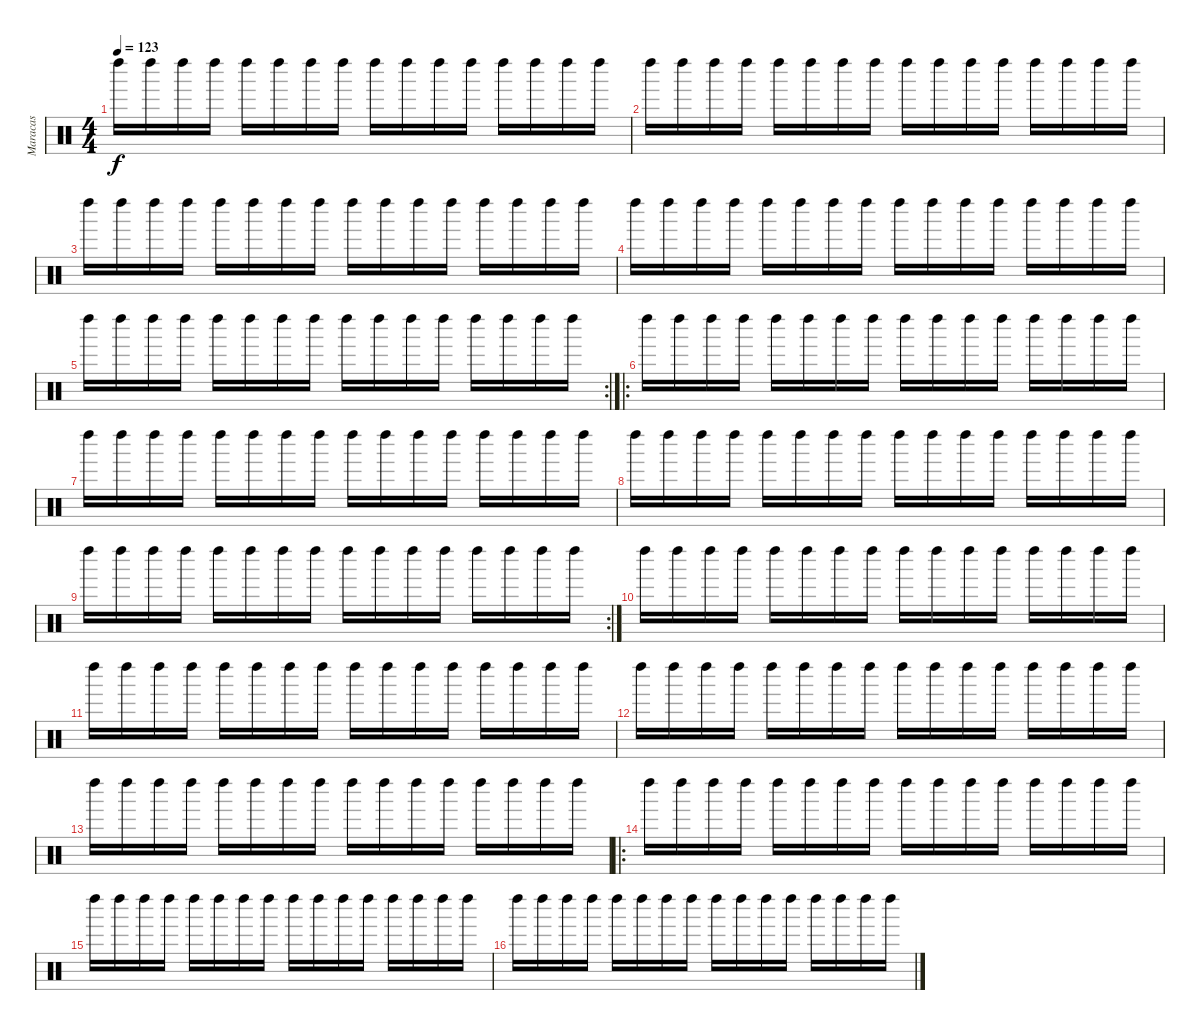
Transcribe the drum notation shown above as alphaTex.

\track ("Maracas" "Maracas") {instrument percussion}
\staff {score}
\articulation defaults
\ts (4 4)
\tempo 123
\clef neutral
\ks c "Left Maraca (hit)".16{dy f} "Left Maraca (hit)".16 "Left Maraca (hit)".16 "Left Maraca (hit)".16 "Left Maraca (hit)".16 "Left Maraca (hit)".16 "Left Maraca (hit)".16 "Left Maraca (hit)".16 "Left Maraca (hit)".16 "Left Maraca (hit)".16 "Left Maraca (hit)".16 "Left Maraca (hit)".16 "Left Maraca (hit)".16 "Left Maraca (hit)".16 "Left Maraca (hit)".16 "Left Maraca (hit)".16
|
"Left Maraca (hit)".16 "Left Maraca (hit)".16 "Left Maraca (hit)".16 "Left Maraca (hit)".16 "Left Maraca (hit)".16 "Left Maraca (hit)".16 "Left Maraca (hit)".16 "Left Maraca (hit)".16 "Left Maraca (hit)".16 "Left Maraca (hit)".16 "Left Maraca (hit)".16 "Left Maraca (hit)".16 "Left Maraca (hit)".16 "Left Maraca (hit)".16 "Left Maraca (hit)".16 "Left Maraca (hit)".16 |
"Left Maraca (hit)".16 "Left Maraca (hit)".16 "Left Maraca (hit)".16 "Left Maraca (hit)".16 "Left Maraca (hit)".16 "Left Maraca (hit)".16 "Left Maraca (hit)".16 "Left Maraca (hit)".16 "Left Maraca (hit)".16 "Left Maraca (hit)".16 "Left Maraca (hit)".16 "Left Maraca (hit)".16 "Left Maraca (hit)".16 "Left Maraca (hit)".16 "Left Maraca (hit)".16 "Left Maraca (hit)".16 |
"Left Maraca (hit)".16 "Left Maraca (hit)".16 "Left Maraca (hit)".16 "Left Maraca (hit)".16 "Left Maraca (hit)".16 "Left Maraca (hit)".16 "Left Maraca (hit)".16 "Left Maraca (hit)".16 "Left Maraca (hit)".16 "Left Maraca (hit)".16 "Left Maraca (hit)".16 "Left Maraca (hit)".16 "Left Maraca (hit)".16 "Left Maraca (hit)".16 "Left Maraca (hit)".16 "Left Maraca (hit)".16 |
\rc 2 "Left Maraca (hit)".16 "Left Maraca (hit)".16 "Left Maraca (hit)".16 "Left Maraca (hit)".16 "Left Maraca (hit)".16 "Left Maraca (hit)".16 "Left Maraca (hit)".16 "Left Maraca (hit)".16 "Left Maraca (hit)".16 "Left Maraca (hit)".16 "Left Maraca (hit)".16 "Left Maraca (hit)".16 "Left Maraca (hit)".16 "Left Maraca (hit)".16 "Left Maraca (hit)".16 "Left Maraca (hit)".16
|
\ro "Left Maraca (hit)".16 "Left Maraca (hit)".16 "Left Maraca (hit)".16 "Left Maraca (hit)".16 "Left Maraca (hit)".16 "Left Maraca (hit)".16 "Left Maraca (hit)".16 "Left Maraca (hit)".16 "Left Maraca (hit)".16 "Left Maraca (hit)".16 "Left Maraca (hit)".16 "Left Maraca (hit)".16 "Left Maraca (hit)".16 "Left Maraca (hit)".16 "Left Maraca (hit)".16 "Left Maraca (hit)".16
|
"Left Maraca (hit)".16 "Left Maraca (hit)".16 "Left Maraca (hit)".16 "Left Maraca (hit)".16 "Left Maraca (hit)".16 "Left Maraca (hit)".16 "Left Maraca (hit)".16 "Left Maraca (hit)".16 "Left Maraca (hit)".16 "Left Maraca (hit)".16 "Left Maraca (hit)".16 "Left Maraca (hit)".16 "Left Maraca (hit)".16 "Left Maraca (hit)".16 "Left Maraca (hit)".16 "Left Maraca (hit)".16 |
"Left Maraca (hit)".16 "Left Maraca (hit)".16 "Left Maraca (hit)".16 "Left Maraca (hit)".16 "Left Maraca (hit)".16 "Left Maraca (hit)".16 "Left Maraca (hit)".16 "Left Maraca (hit)".16 "Left Maraca (hit)".16 "Left Maraca (hit)".16 "Left Maraca (hit)".16 "Left Maraca (hit)".16 "Left Maraca (hit)".16 "Left Maraca (hit)".16 "Left Maraca (hit)".16 "Left Maraca (hit)".16 |
\rc 2 "Left Maraca (hit)".16 "Left Maraca (hit)".16 "Left Maraca (hit)".16 "Left Maraca (hit)".16 "Left Maraca (hit)".16 "Left Maraca (hit)".16 "Left Maraca (hit)".16 "Left Maraca (hit)".16 "Left Maraca (hit)".16 "Left Maraca (hit)".16 "Left Maraca (hit)".16 "Left Maraca (hit)".16 "Left Maraca (hit)".16 "Left Maraca (hit)".16 "Left Maraca (hit)".16 "Left Maraca (hit)".16
|
"Left Maraca (hit)".16 "Left Maraca (hit)".16 "Left Maraca (hit)".16 "Left Maraca (hit)".16 "Left Maraca (hit)".16 "Left Maraca (hit)".16 "Left Maraca (hit)".16 "Left Maraca (hit)".16 "Left Maraca (hit)".16 "Left Maraca (hit)".16 "Left Maraca (hit)".16 "Left Maraca (hit)".16 "Left Maraca (hit)".16 "Left Maraca (hit)".16 "Left Maraca (hit)".16 "Left Maraca (hit)".16 |
"Left Maraca (hit)".16 "Left Maraca (hit)".16 "Left Maraca (hit)".16 "Left Maraca (hit)".16 "Left Maraca (hit)".16 "Left Maraca (hit)".16 "Left Maraca (hit)".16 "Left Maraca (hit)".16 "Left Maraca (hit)".16 "Left Maraca (hit)".16 "Left Maraca (hit)".16 "Left Maraca (hit)".16 "Left Maraca (hit)".16 "Left Maraca (hit)".16 "Left Maraca (hit)".16 "Left Maraca (hit)".16 |
"Left Maraca (hit)".16 "Left Maraca (hit)".16 "Left Maraca (hit)".16 "Left Maraca (hit)".16 "Left Maraca (hit)".16 "Left Maraca (hit)".16 "Left Maraca (hit)".16 "Left Maraca (hit)".16 "Left Maraca (hit)".16 "Left Maraca (hit)".16 "Left Maraca (hit)".16 "Left Maraca (hit)".16 "Left Maraca (hit)".16 "Left Maraca (hit)".16 "Left Maraca (hit)".16 "Left Maraca (hit)".16 |
"Left Maraca (hit)".16 "Left Maraca (hit)".16 "Left Maraca (hit)".16 "Left Maraca (hit)".16 "Left Maraca (hit)".16 "Left Maraca (hit)".16 "Left Maraca (hit)".16 "Left Maraca (hit)".16 "Left Maraca (hit)".16 "Left Maraca (hit)".16 "Left Maraca (hit)".16 "Left Maraca (hit)".16 "Left Maraca (hit)".16 "Left Maraca (hit)".16 "Left Maraca (hit)".16 "Left Maraca (hit)".16 |
\ro "Left Maraca (hit)".16 "Left Maraca (hit)".16 "Left Maraca (hit)".16 "Left Maraca (hit)".16 "Left Maraca (hit)".16 "Left Maraca (hit)".16 "Left Maraca (hit)".16 "Left Maraca (hit)".16 "Left Maraca (hit)".16 "Left Maraca (hit)".16 "Left Maraca (hit)".16 "Left Maraca (hit)".16 "Left Maraca (hit)".16 "Left Maraca (hit)".16 "Left Maraca (hit)".16 "Left Maraca (hit)".16
|
"Left Maraca (hit)".16 "Left Maraca (hit)".16 "Left Maraca (hit)".16 "Left Maraca (hit)".16 "Left Maraca (hit)".16 "Left Maraca (hit)".16 "Left Maraca (hit)".16 "Left Maraca (hit)".16 "Left Maraca (hit)".16 "Left Maraca (hit)".16 "Left Maraca (hit)".16 "Left Maraca (hit)".16 "Left Maraca (hit)".16 "Left Maraca (hit)".16 "Left Maraca (hit)".16 "Left Maraca (hit)".16 |
"Left Maraca (hit)".16 "Left Maraca (hit)".16 "Left Maraca (hit)".16 "Left Maraca (hit)".16 "Left Maraca (hit)".16 "Left Maraca (hit)".16 "Left Maraca (hit)".16 "Left Maraca (hit)".16 "Left Maraca (hit)".16 "Left Maraca (hit)".16 "Left Maraca (hit)".16 "Left Maraca (hit)".16 "Left Maraca (hit)".16 "Left Maraca (hit)".16 "Left Maraca (hit)".16 "Left Maraca (hit)".16
